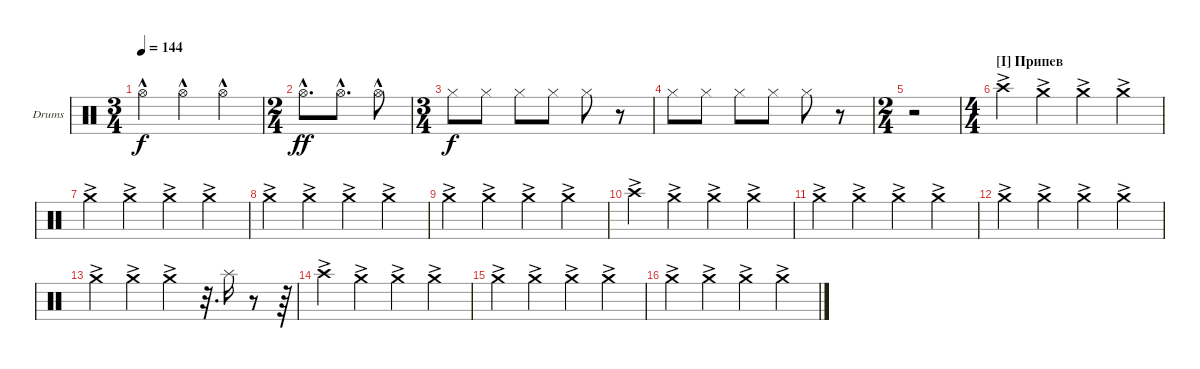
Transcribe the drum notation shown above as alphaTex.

\defaultSystemsLayout 4
\bracketExtendMode groupsimilarinstruments
\firstSystemTrackNameOrientation horizontal
\otherSystemsTrackNameOrientation horizontal
\track ("Cymbals" "Drums") {instrument percussion}
\staff {score}
\articulation defaults
\ts (3 4)
\tempo 144
\clef neutral
\ks c "Hi-Hat (open)"{hac}.4{dy f} "Hi-Hat (open)"{hac}.4 "Hi-Hat (open)"{hac}.4
|
\ts (2 4)
"Hi-Hat (open)"{hac}.8{d dy ff} "Hi-Hat (open)"{hac}.8{d} "Hi-Hat (open)"{hac}.8 |
\ts (3 4)
"Hi-Hat (closed)".8{dy f} "Hi-Hat (closed)".8 "Hi-Hat (closed)".8 "Hi-Hat (closed)".8 "Hi-Hat (closed)".8 r.8 |
"Hi-Hat (closed)".8 "Hi-Hat (closed)".8 "Hi-Hat (closed)".8 "Hi-Hat (closed)".8 "Hi-Hat (closed)".8 r.8 |
\ts (2 4)
r.2 |
\ts (4 4)
\section ("I" "Припев ")
"Crash high (hit)"{ac}.4 "Crash medium (hit)"{ac}.4 "Crash medium (hit)"{ac}.4 "Crash medium (hit)"{ac}.4 |
"Crash medium (hit)"{ac}.4 "Crash medium (hit)"{ac}.4 "Crash medium (hit)"{ac}.4 "Crash medium (hit)"{ac}.4 |
"Crash medium (hit)"{ac}.4 "Crash medium (hit)"{ac}.4 "Crash medium (hit)"{ac}.4 "Crash medium (hit)"{ac}.4 |
"Crash medium (hit)"{ac}.4 "Crash medium (hit)"{ac}.4 "Crash medium (hit)"{ac}.4 "Crash medium (hit)"{ac}.4 |
"Crash high (hit)"{ac}.4 "Crash medium (hit)"{ac}.4 "Crash medium (hit)"{ac}.4 "Crash medium (hit)"{ac}.4 |
"Crash medium (hit)"{ac}.4 "Crash medium (hit)"{ac}.4 "Crash medium (hit)"{ac}.4 "Crash medium (hit)"{ac}.4 |
"Crash medium (hit)"{ac}.4 "Crash medium (hit)"{ac}.4 "Crash medium (hit)"{ac}.4 "Crash medium (hit)"{ac}.4 |
"Crash medium (hit)"{ac}.4 "Crash medium (hit)"{ac}.4 "Crash medium (hit)"{ac}.4 r.32{d} "Splash (hit)".16 r.8 r.64 |
"Crash high (hit)"{ac}.4 "Crash medium (hit)"{ac}.4 "Crash medium (hit)"{ac}.4 "Crash medium (hit)"{ac}.4 |
"Crash medium (hit)"{ac}.4 "Crash medium (hit)"{ac}.4 "Crash medium (hit)"{ac}.4 "Crash medium (hit)"{ac}.4 |
"Crash medium (hit)"{ac}.4 "Crash medium (hit)"{ac}.4 "Crash medium (hit)"{ac}.4 "Crash medium (hit)"{ac}.4
